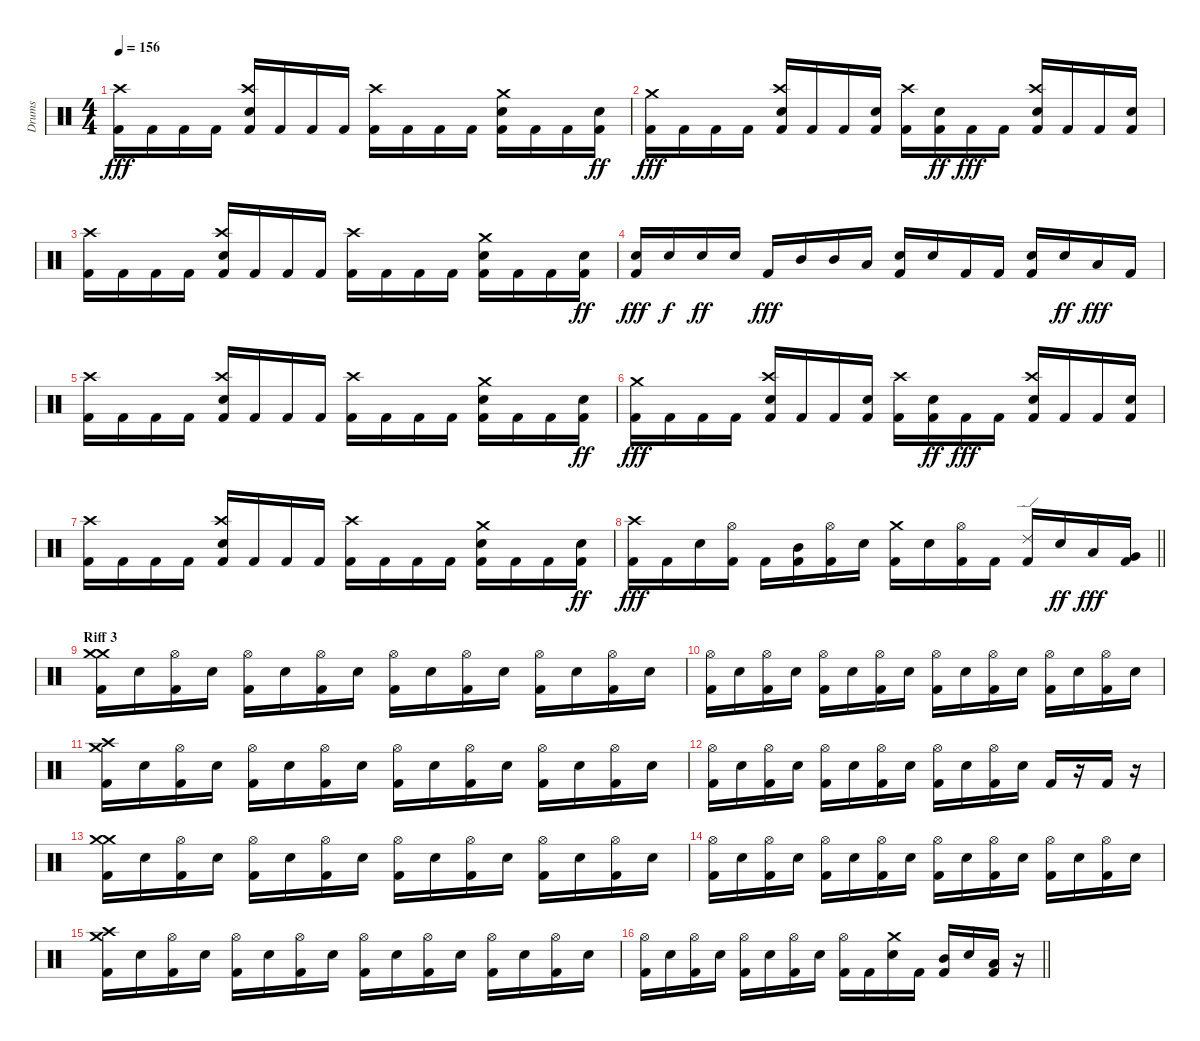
\track ("Drums" "Drums") {instrument percussion}
\staff {score}
\articulation defaults
\ts (4 4)
\tempo 156
\clef neutral
\ks c
("Kick (hit) 2" "Crash high (hit)").16{dy fff} "Kick (hit) 2".16 "Kick (hit) 2".16 "Kick (hit) 2".16 ("Kick (hit) 2" "Snare (hit) 2" "Crash high (hit)").16 "Kick (hit) 2".16 "Kick (hit) 2".16 "Kick (hit) 2".16 ("Kick (hit) 2" "Crash high (hit)").16 "Kick (hit) 2".16 "Kick (hit) 2".16 "Kick (hit) 2".16 ("Kick (hit) 2" "Snare (hit) 2" "Crash medium (hit)").16 "Kick (hit) 2".16 "Kick (hit) 2".16 ("Kick (hit) 2" "Snare (hit) 2").16{dy ff} |
("Kick (hit) 2" "Crash medium (hit)").16{dy fff} "Kick (hit) 2".16 "Kick (hit) 2".16 "Kick (hit) 2".16 ("Kick (hit) 2" "Snare (hit) 2" "Crash high (hit)").16 "Kick (hit) 2".16 "Kick (hit) 2".16 ("Kick (hit) 2" "Snare (hit) 2").16 ("Kick (hit) 2" "Crash high (hit)").16 ("Kick (hit) 2" "Snare (hit) 2").16{dy ff} "Kick (hit) 2".16{dy fff} "Kick (hit) 2".16 ("Kick (hit) 2" "Snare (hit) 2" "Crash high (hit)").16 "Kick (hit) 2".16 "Kick (hit) 2".16 ("Kick (hit) 2" "Snare (hit) 2").16 |
("Kick (hit) 2" "Crash high (hit)").16 "Kick (hit) 2".16 "Kick (hit) 2".16 "Kick (hit) 2".16 ("Kick (hit) 2" "Snare (hit) 2" "Crash high (hit)").16 "Kick (hit) 2".16 "Kick (hit) 2".16 "Kick (hit) 2".16 ("Kick (hit) 2" "Crash high (hit)").16 "Kick (hit) 2".16 "Kick (hit) 2".16 "Kick (hit) 2".16 ("Kick (hit) 2" "Snare (hit) 2" "Crash medium (hit)").16 "Kick (hit) 2".16 "Kick (hit) 2".16 ("Kick (hit) 2" "Snare (hit) 2").16{dy ff} |
("Kick (hit) 2" "Snare (hit) 2").16{dy fff} "Snare (hit) 2".16{dy f} "Snare (hit) 2".16{dy ff} "Snare (hit) 2".16 "Kick (hit) 2".16{dy fff} "Mid Tom (hit)".16 "Mid Tom (hit)".16 "Low Tom (hit)".16 ("Kick (hit) 2" "Snare (hit) 2").16 "Snare (hit) 2".16 "Kick (hit) 2".16 "Kick (hit) 2".16 ("Kick (hit) 2" "Snare (hit) 2").16 "Snare (hit) 2".16{dy ff} "Low Tom (hit)".16{dy fff} "Kick (hit) 2".16 |
("Kick (hit) 2" "Crash high (hit)").16 "Kick (hit) 2".16 "Kick (hit) 2".16 "Kick (hit) 2".16 ("Kick (hit) 2" "Snare (hit) 2" "Crash high (hit)").16 "Kick (hit) 2".16 "Kick (hit) 2".16 "Kick (hit) 2".16 ("Kick (hit) 2" "Crash high (hit)").16 "Kick (hit) 2".16 "Kick (hit) 2".16 "Kick (hit) 2".16 ("Kick (hit) 2" "Snare (hit) 2" "Crash medium (hit)").16 "Kick (hit) 2".16 "Kick (hit) 2".16 ("Kick (hit) 2" "Snare (hit) 2").16{dy ff} |
("Kick (hit) 2" "Crash medium (hit)").16{dy fff} "Kick (hit) 2".16 "Kick (hit) 2".16 "Kick (hit) 2".16 ("Kick (hit) 2" "Snare (hit) 2" "Crash high (hit)").16 "Kick (hit) 2".16 "Kick (hit) 2".16 ("Kick (hit) 2" "Snare (hit) 2").16 ("Kick (hit) 2" "Crash high (hit)").16 ("Kick (hit) 2" "Snare (hit) 2").16{dy ff} "Kick (hit) 2".16{dy fff} "Kick (hit) 2".16 ("Kick (hit) 2" "Snare (hit) 2" "Crash high (hit)").16 "Kick (hit) 2".16 "Kick (hit) 2".16 ("Kick (hit) 2" "Snare (hit) 2").16 |
("Kick (hit) 2" "Crash high (hit)").16 "Kick (hit) 2".16 "Kick (hit) 2".16 "Kick (hit) 2".16 ("Kick (hit) 2" "Snare (hit) 2" "Crash high (hit)").16 "Kick (hit) 2".16 "Kick (hit) 2".16 "Kick (hit) 2".16 ("Kick (hit) 2" "Crash high (hit)").16 "Kick (hit) 2".16 "Kick (hit) 2".16 "Kick (hit) 2".16 ("Kick (hit) 2" "Snare (hit) 2" "Crash medium (hit)").16 "Kick (hit) 2".16 "Kick (hit) 2".16 ("Kick (hit) 2" "Snare (hit) 2").16{dy ff} |
\barLineRight lightlight
("Kick (hit) 2" "Crash high (hit)").16{dy fff} "Kick (hit) 2".16 "Snare (hit) 2".16 ("Kick (hit) 2" "Hi-Hat (open)").16 "Kick (hit) 2".16 ("Kick (hit) 2" "Mid Tom (hit)").16 ("Kick (hit) 2" "Hi-Hat (open)").16 "Snare (hit) 2".16 ("Kick (hit) 2" "Crash medium (hit)").16 "Snare (hit) 2".16 ("Kick (hit) 2" "Hi-Hat (open)").16 "Kick (hit) 2".16 ("Kick (hit) 2" "Ride (edge) 2").16 "Snare (hit) 2".16{dy ff} "Low Tom (hit)".16{dy fff} ("Kick (hit) 2" "Very Low Tom (hit)").16 |
\section ("" "Riff 3")
("Kick (hit) 2" "Crash medium (hit)" "Crash medium (hit)").16 "Snare (hit) 2".16 ("Kick (hit) 2" "Hi-Hat (open)").16 "Snare (hit) 2".16 ("Kick (hit) 2" "Hi-Hat (open)").16 "Snare (hit) 2".16 ("Kick (hit) 2" "Hi-Hat (open)").16 "Snare (hit) 2".16 ("Kick (hit) 2" "Hi-Hat (open)").16 "Snare (hit) 2".16 ("Kick (hit) 2" "Hi-Hat (open)").16 "Snare (hit) 2".16 ("Kick (hit) 2" "Hi-Hat (open)").16 "Snare (hit) 2".16 ("Kick (hit) 2" "Hi-Hat (open)").16 "Snare (hit) 2".16 |
("Kick (hit) 2" "Hi-Hat (open)").16 "Snare (hit) 2".16 ("Kick (hit) 2" "Hi-Hat (open)").16 "Snare (hit) 2".16 ("Kick (hit) 2" "Hi-Hat (open)").16 "Snare (hit) 2".16 ("Kick (hit) 2" "Hi-Hat (open)").16 "Snare (hit) 2".16 ("Kick (hit) 2" "Hi-Hat (open)").16 "Snare (hit) 2".16 ("Kick (hit) 2" "Hi-Hat (open)").16 "Snare (hit) 2".16 ("Kick (hit) 2" "Hi-Hat (open)").16 "Snare (hit) 2".16 ("Kick (hit) 2" "Hi-Hat (open)").16 "Snare (hit) 2".16 |
("Kick (hit) 2" "Crash high (hit)" "Crash medium (hit)").16 "Snare (hit) 2".16 ("Kick (hit) 2" "Hi-Hat (open)").16 "Snare (hit) 2".16 ("Kick (hit) 2" "Hi-Hat (open)").16 "Snare (hit) 2".16 ("Kick (hit) 2" "Hi-Hat (open)").16 "Snare (hit) 2".16 ("Kick (hit) 2" "Hi-Hat (open)").16 "Snare (hit) 2".16 ("Kick (hit) 2" "Hi-Hat (open)").16 "Snare (hit) 2".16 ("Kick (hit) 2" "Hi-Hat (open)").16 "Snare (hit) 2".16 ("Kick (hit) 2" "Hi-Hat (open)").16 "Snare (hit) 2".16 |
("Kick (hit) 2" "Hi-Hat (open)").16 "Snare (hit) 2".16 ("Kick (hit) 2" "Hi-Hat (open)").16 "Snare (hit) 2".16 ("Kick (hit) 2" "Hi-Hat (open)").16 "Snare (hit) 2".16 ("Kick (hit) 2" "Hi-Hat (open)").16 "Snare (hit) 2".16 ("Kick (hit) 2" "Hi-Hat (open)").16 "Snare (hit) 2".16 ("Kick (hit) 2" "Hi-Hat (open)").16 "Snare (hit) 2".16 "Kick (hit) 2".16 r.16 "Kick (hit) 2".16 r.16 |
("Kick (hit) 2" "Crash medium (hit)" "Crash medium (hit)").16 "Snare (hit) 2".16 ("Kick (hit) 2" "Hi-Hat (open)").16 "Snare (hit) 2".16 ("Kick (hit) 2" "Hi-Hat (open)").16 "Snare (hit) 2".16 ("Kick (hit) 2" "Hi-Hat (open)").16 "Snare (hit) 2".16 ("Kick (hit) 2" "Hi-Hat (open)").16 "Snare (hit) 2".16 ("Kick (hit) 2" "Hi-Hat (open)").16 "Snare (hit) 2".16 ("Kick (hit) 2" "Hi-Hat (open)").16 "Snare (hit) 2".16 ("Kick (hit) 2" "Hi-Hat (open)").16 "Snare (hit) 2".16 |
("Kick (hit) 2" "Hi-Hat (open)").16 "Snare (hit) 2".16 ("Kick (hit) 2" "Hi-Hat (open)").16 "Snare (hit) 2".16 ("Kick (hit) 2" "Hi-Hat (open)").16 "Snare (hit) 2".16 ("Kick (hit) 2" "Hi-Hat (open)").16 "Snare (hit) 2".16 ("Kick (hit) 2" "Hi-Hat (open)").16 "Snare (hit) 2".16 ("Kick (hit) 2" "Hi-Hat (open)").16 "Snare (hit) 2".16 ("Kick (hit) 2" "Hi-Hat (open)").16 "Snare (hit) 2".16 ("Kick (hit) 2" "Hi-Hat (open)").16 "Snare (hit) 2".16 |
("Kick (hit) 2" "Crash high (hit)" "Crash medium (hit)").16 "Snare (hit) 2".16 ("Kick (hit) 2" "Hi-Hat (open)").16 "Snare (hit) 2".16 ("Kick (hit) 2" "Hi-Hat (open)").16 "Snare (hit) 2".16 ("Kick (hit) 2" "Hi-Hat (open)").16 "Snare (hit) 2".16 ("Kick (hit) 2" "Hi-Hat (open)").16 "Snare (hit) 2".16 ("Kick (hit) 2" "Hi-Hat (open)").16 "Snare (hit) 2".16 ("Kick (hit) 2" "Hi-Hat (open)").16 "Snare (hit) 2".16 ("Kick (hit) 2" "Hi-Hat (open)").16 "Snare (hit) 2".16 |
\barLineRight lightlight
("Kick (hit) 2" "Hi-Hat (open)").16 "Snare (hit) 2".16 ("Kick (hit) 2" "Hi-Hat (open)").16 "Snare (hit) 2".16 ("Kick (hit) 2" "Hi-Hat (open)").16 "Snare (hit) 2".16 ("Kick (hit) 2" "Hi-Hat (open)").16 "Snare (hit) 2".16 ("Kick (hit) 2" "Hi-Hat (open)").16 "Kick (hit) 2".16 ("Snare (hit) 2" "Crash medium (hit)").16 "Kick (hit) 2".16 ("Kick (hit) 2" "Mid Tom (hit)").16 "Snare (hit) 2".16 ("Kick (hit) 2" "Low Tom (hit)").16 r.16
